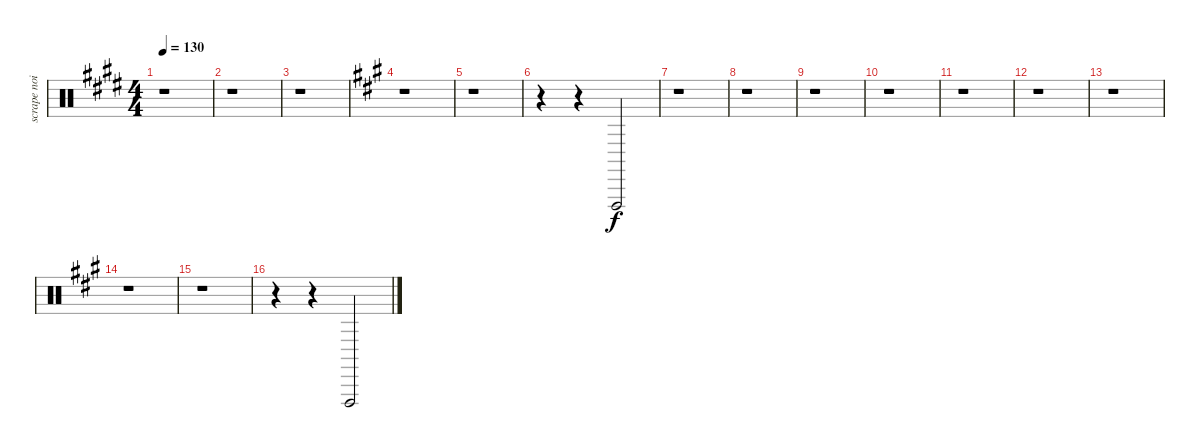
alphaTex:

\track ("scrape noise" "scrape noi") {instrument percussion}
\staff {score}
\articulation defaults
\ts (4 4)
\tempo 130
\clef neutral
\ks e
r.1{dy f} |
\ks c#minor
r.1 |
\ks e
r.1 |
\ks a
r.1 |
r.1 |
r.4 r.4 "Vibraslap (hit)".2 |
r.1 |
r.1 |
r.1 |
r.1 |
r.1 |
r.1 |
r.1 |
r.1 |
r.1 |
r.4 r.4 "Vibraslap (hit)".2
